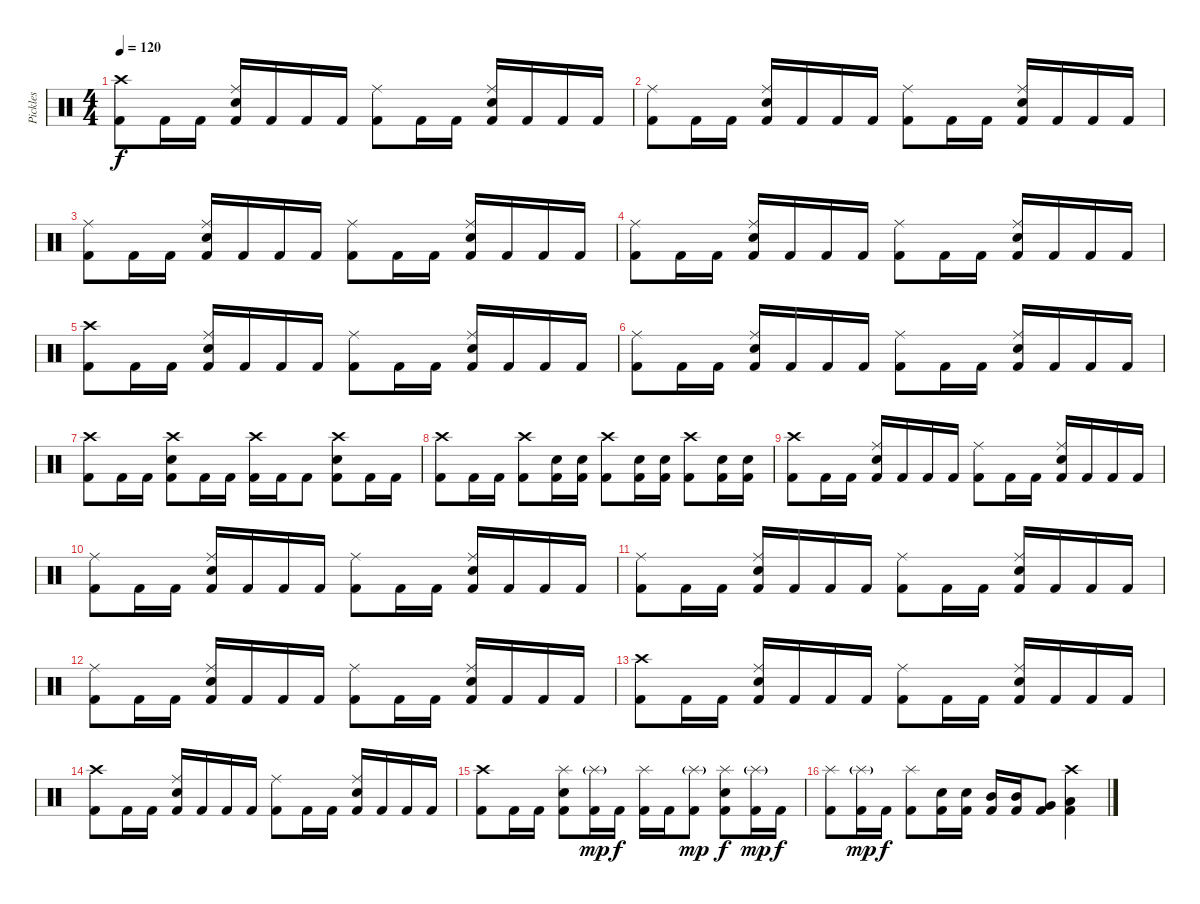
\track ("Pickles" "Pickles") {instrument percussion}
\staff {score}
\articulation defaults
\ts (4 4)
\tempo 120
\clef neutral
\ks c
("Crash high (hit)" "Kick (hit) 2").8{dy f} "Kick (hit) 2".16 "Kick (hit) 2".16 ("Ride (middle)" "Snare (hit) 2" "Kick (hit) 2").16 "Kick (hit) 2".16 "Kick (hit) 2".16 "Kick (hit) 2".16 ("Ride (middle)" "Kick (hit) 2").8 "Kick (hit) 2".16 "Kick (hit) 2".16 ("Ride (middle)" "Snare (hit) 2" "Kick (hit) 2").16 "Kick (hit) 2".16 "Kick (hit) 2".16 "Kick (hit) 2".16 |
("Ride (middle)" "Kick (hit) 2").8 "Kick (hit) 2".16 "Kick (hit) 2".16 ("Ride (middle)" "Snare (hit) 2" "Kick (hit) 2").16 "Kick (hit) 2".16 "Kick (hit) 2".16 "Kick (hit) 2".16 ("Ride (middle)" "Kick (hit) 2").8 "Kick (hit) 2".16 "Kick (hit) 2".16 ("Ride (middle)" "Snare (hit) 2" "Kick (hit) 2").16 "Kick (hit) 2".16 "Kick (hit) 2".16 "Kick (hit) 2".16 |
("Ride (middle)" "Kick (hit) 2").8 "Kick (hit) 2".16 "Kick (hit) 2".16 ("Ride (middle)" "Snare (hit) 2" "Kick (hit) 2").16 "Kick (hit) 2".16 "Kick (hit) 2".16 "Kick (hit) 2".16 ("Ride (middle)" "Kick (hit) 2").8 "Kick (hit) 2".16 "Kick (hit) 2".16 ("Ride (middle)" "Snare (hit) 2" "Kick (hit) 2").16 "Kick (hit) 2".16 "Kick (hit) 2".16 "Kick (hit) 2".16 |
("Ride (middle)" "Kick (hit) 2").8 "Kick (hit) 2".16 "Kick (hit) 2".16 ("Ride (middle)" "Snare (hit) 2" "Kick (hit) 2").16 "Kick (hit) 2".16 "Kick (hit) 2".16 "Kick (hit) 2".16 ("Ride (middle)" "Kick (hit) 2").8 "Kick (hit) 2".16 "Kick (hit) 2".16 ("Ride (middle)" "Snare (hit) 2" "Kick (hit) 2").16 "Kick (hit) 2".16 "Kick (hit) 2".16 "Kick (hit) 2".16 |
("Crash high (hit)" "Kick (hit) 2").8 "Kick (hit) 2".16 "Kick (hit) 2".16 ("Ride (middle)" "Snare (hit) 2" "Kick (hit) 2").16 "Kick (hit) 2".16 "Kick (hit) 2".16 "Kick (hit) 2".16 ("Ride (middle)" "Kick (hit) 2").8 "Kick (hit) 2".16 "Kick (hit) 2".16 ("Ride (middle)" "Snare (hit) 2" "Kick (hit) 2").16 "Kick (hit) 2".16 "Kick (hit) 2".16 "Kick (hit) 2".16 |
("Ride (middle)" "Kick (hit) 2").8 "Kick (hit) 2".16 "Kick (hit) 2".16 ("Ride (middle)" "Snare (hit) 2" "Kick (hit) 2").16 "Kick (hit) 2".16 "Kick (hit) 2".16 "Kick (hit) 2".16 ("Ride (middle)" "Kick (hit) 2").8 "Kick (hit) 2".16 "Kick (hit) 2".16 ("Ride (middle)" "Snare (hit) 2" "Kick (hit) 2").16 "Kick (hit) 2".16 "Kick (hit) 2".16 "Kick (hit) 2".16 |
("Crash high (hit)" "Kick (hit) 2").8 "Kick (hit) 2".16 "Kick (hit) 2".16 ("Crash high (hit)" "Snare (hit) 2" "Kick (hit) 2").8 "Kick (hit) 2".16 "Kick (hit) 2".16 ("Crash high (hit)" "Kick (hit) 2").16 "Kick (hit) 2".16 "Kick (hit) 2".8 ("Crash high (hit)" "Snare (hit) 2" "Kick (hit) 2").8 "Kick (hit) 2".16 "Kick (hit) 2".16 |
("Crash high (hit)" "Kick (hit) 2").8 "Kick (hit) 2".16 "Kick (hit) 2".16 ("Crash high (hit)" "Kick (hit) 2").8 ("Snare (hit) 2" "Kick (hit) 2").16 ("Snare (hit) 2" "Kick (hit) 2").16 ("Crash high (hit)" "Kick (hit) 2").8 ("Snare (hit) 2" "Kick (hit) 2").16 ("Snare (hit) 2" "Kick (hit) 2").16 ("Crash high (hit)" "Kick (hit) 2").8 ("Snare (hit) 2" "Kick (hit) 2").16 ("Snare (hit) 2" "Kick (hit) 2").16 |
("Crash high (hit)" "Kick (hit) 2").8 "Kick (hit) 2".16 "Kick (hit) 2".16 ("Ride (middle)" "Snare (hit) 2" "Kick (hit) 2").16 "Kick (hit) 2".16 "Kick (hit) 2".16 "Kick (hit) 2".16 ("Ride (middle)" "Kick (hit) 2").8 "Kick (hit) 2".16 "Kick (hit) 2".16 ("Ride (middle)" "Snare (hit) 2" "Kick (hit) 2").16 "Kick (hit) 2".16 "Kick (hit) 2".16 "Kick (hit) 2".16 |
("Ride (middle)" "Kick (hit) 2").8 "Kick (hit) 2".16 "Kick (hit) 2".16 ("Ride (middle)" "Snare (hit) 2" "Kick (hit) 2").16 "Kick (hit) 2".16 "Kick (hit) 2".16 "Kick (hit) 2".16 ("Ride (middle)" "Kick (hit) 2").8 "Kick (hit) 2".16 "Kick (hit) 2".16 ("Ride (middle)" "Snare (hit) 2" "Kick (hit) 2").16 "Kick (hit) 2".16 "Kick (hit) 2".16 "Kick (hit) 2".16 |
("Ride (middle)" "Kick (hit) 2").8 "Kick (hit) 2".16 "Kick (hit) 2".16 ("Ride (middle)" "Snare (hit) 2" "Kick (hit) 2").16 "Kick (hit) 2".16 "Kick (hit) 2".16 "Kick (hit) 2".16 ("Ride (middle)" "Kick (hit) 2").8 "Kick (hit) 2".16 "Kick (hit) 2".16 ("Ride (middle)" "Snare (hit) 2" "Kick (hit) 2").16 "Kick (hit) 2".16 "Kick (hit) 2".16 "Kick (hit) 2".16 |
("Ride (middle)" "Kick (hit) 2").8 "Kick (hit) 2".16 "Kick (hit) 2".16 ("Ride (middle)" "Snare (hit) 2" "Kick (hit) 2").16 "Kick (hit) 2".16 "Kick (hit) 2".16 "Kick (hit) 2".16 ("Ride (middle)" "Kick (hit) 2").8 "Kick (hit) 2".16 "Kick (hit) 2".16 ("Ride (middle)" "Snare (hit) 2" "Kick (hit) 2").16 "Kick (hit) 2".16 "Kick (hit) 2".16 "Kick (hit) 2".16 |
("Crash high (hit)" "Kick (hit) 2").8 "Kick (hit) 2".16 "Kick (hit) 2".16 ("Ride (middle)" "Snare (hit) 2" "Kick (hit) 2").16 "Kick (hit) 2".16 "Kick (hit) 2".16 "Kick (hit) 2".16 ("Ride (middle)" "Kick (hit) 2").8 "Kick (hit) 2".16 "Kick (hit) 2".16 ("Ride (middle)" "Snare (hit) 2" "Kick (hit) 2").16 "Kick (hit) 2".16 "Kick (hit) 2".16 "Kick (hit) 2".16 |
("Crash high (hit)" "Kick (hit) 2").8 "Kick (hit) 2".16 "Kick (hit) 2".16 ("Ride (middle)" "Snare (hit) 2" "Kick (hit) 2").16 "Kick (hit) 2".16 "Kick (hit) 2".16 "Kick (hit) 2".16 ("Ride (middle)" "Kick (hit) 2").8 "Kick (hit) 2".16 "Kick (hit) 2".16 ("Ride (middle)" "Snare (hit) 2" "Kick (hit) 2").16 "Kick (hit) 2".16 "Kick (hit) 2".16 "Kick (hit) 2".16 |
("Crash high (hit)" "Kick (hit) 2").8 "Kick (hit) 2".16 "Kick (hit) 2".16 ("Splash (hit)" "Snare (hit) 2" "Kick (hit) 2").8 ("Splash (hit)"{g} "Kick (hit) 2").16{dy mp} "Kick (hit) 2".16{dy f} ("Splash (hit)" "Kick (hit) 2").16 "Kick (hit) 2".16 ("Splash (hit)"{g} "Kick (hit) 2").8{dy mp} ("Splash (hit)" "Snare (hit) 2" "Kick (hit) 2").8{dy f} ("Splash (hit)"{g} "Kick (hit) 2").16{dy mp} "Kick (hit) 2".16{dy f} |
("Splash (hit)" "Kick (hit) 2").8 ("Splash (hit)"{g} "Kick (hit) 2").16{dy mp} "Kick (hit) 2".16{dy f} ("Splash (hit)" "Kick (hit) 2").8 ("Snare (hit) 2" "Kick (hit) 2").16 ("Snare (hit) 2" "Kick (hit) 2").16 ("Mid Tom (hit)" "Kick (hit) 2").16 ("Mid Tom (hit)" "Kick (hit) 2").16 ("Very Low Tom (hit)" "Kick (hit) 2").8 ("Crash high (hit)" "Low Floor Tom (hit)" "Kick (hit) 2").4
